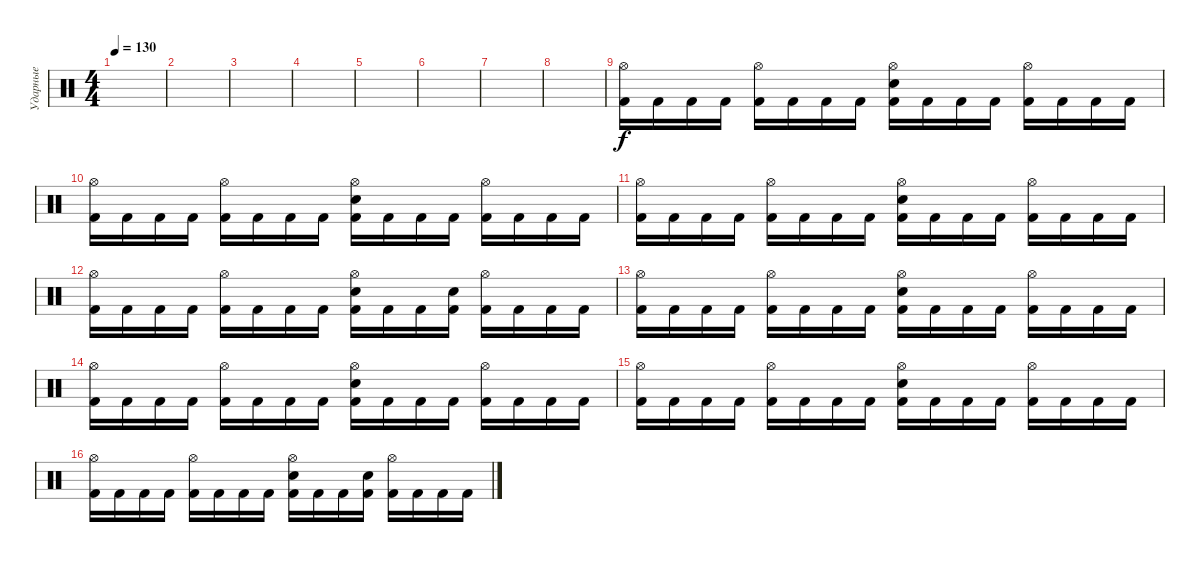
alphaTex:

\track ("Ударные" "Ударные") {instrument percussion}
\staff {score}
\articulation defaults
\ts (4 4)
\tempo 130
\clef neutral
\ks c
|
|
|
|
|
|
|
|
("Hi-Hat (open)" "Kick (hit) 2").16 "Kick (hit) 2".16 "Kick (hit) 2".16 "Kick (hit) 2".16 ("Hi-Hat (open)" "Kick (hit) 2").16 "Kick (hit) 2".16 "Kick (hit) 2".16 "Kick (hit) 2".16 ("Hi-Hat (open)" "Electric Snare (hit)" "Kick (hit) 2").16 "Kick (hit) 2".16 "Kick (hit) 2".16 "Kick (hit) 2".16 ("Hi-Hat (open)" "Kick (hit) 2").16 "Kick (hit) 2".16 "Kick (hit) 2".16 "Kick (hit) 2".16 |
("Hi-Hat (open)" "Kick (hit) 2").16 "Kick (hit) 2".16 "Kick (hit) 2".16 "Kick (hit) 2".16 ("Hi-Hat (open)" "Kick (hit) 2").16 "Kick (hit) 2".16 "Kick (hit) 2".16 "Kick (hit) 2".16 ("Hi-Hat (open)" "Electric Snare (hit)" "Kick (hit) 2").16 "Kick (hit) 2".16 "Kick (hit) 2".16 "Kick (hit) 2".16 ("Hi-Hat (open)" "Kick (hit) 2").16 "Kick (hit) 2".16 "Kick (hit) 2".16 "Kick (hit) 2".16 |
("Hi-Hat (open)" "Kick (hit) 2").16 "Kick (hit) 2".16 "Kick (hit) 2".16 "Kick (hit) 2".16 ("Hi-Hat (open)" "Kick (hit) 2").16 "Kick (hit) 2".16 "Kick (hit) 2".16 "Kick (hit) 2".16 ("Hi-Hat (open)" "Electric Snare (hit)" "Kick (hit) 2").16 "Kick (hit) 2".16 "Kick (hit) 2".16 "Kick (hit) 2".16 ("Hi-Hat (open)" "Kick (hit) 2").16 "Kick (hit) 2".16 "Kick (hit) 2".16 "Kick (hit) 2".16 |
("Hi-Hat (open)" "Kick (hit) 2").16 "Kick (hit) 2".16 "Kick (hit) 2".16 "Kick (hit) 2".16 ("Hi-Hat (open)" "Kick (hit) 2").16 "Kick (hit) 2".16 "Kick (hit) 2".16 "Kick (hit) 2".16 ("Hi-Hat (open)" "Electric Snare (hit)" "Kick (hit) 2").16 "Kick (hit) 2".16 "Kick (hit) 2".16 ("Electric Snare (hit)" "Kick (hit) 2").16 ("Hi-Hat (open)" "Kick (hit) 2").16 "Kick (hit) 2".16 "Kick (hit) 2".16 "Kick (hit) 2".16 |
("Hi-Hat (open)" "Kick (hit) 2").16 "Kick (hit) 2".16 "Kick (hit) 2".16 "Kick (hit) 2".16 ("Hi-Hat (open)" "Kick (hit) 2").16 "Kick (hit) 2".16 "Kick (hit) 2".16 "Kick (hit) 2".16 ("Hi-Hat (open)" "Electric Snare (hit)" "Kick (hit) 2").16 "Kick (hit) 2".16 "Kick (hit) 2".16 "Kick (hit) 2".16 ("Hi-Hat (open)" "Kick (hit) 2").16 "Kick (hit) 2".16 "Kick (hit) 2".16 "Kick (hit) 2".16 |
("Hi-Hat (open)" "Kick (hit) 2").16 "Kick (hit) 2".16 "Kick (hit) 2".16 "Kick (hit) 2".16 ("Hi-Hat (open)" "Kick (hit) 2").16 "Kick (hit) 2".16 "Kick (hit) 2".16 "Kick (hit) 2".16 ("Hi-Hat (open)" "Electric Snare (hit)" "Kick (hit) 2").16 "Kick (hit) 2".16 "Kick (hit) 2".16 "Kick (hit) 2".16 ("Hi-Hat (open)" "Kick (hit) 2").16 "Kick (hit) 2".16 "Kick (hit) 2".16 "Kick (hit) 2".16 |
("Hi-Hat (open)" "Kick (hit) 2").16 "Kick (hit) 2".16 "Kick (hit) 2".16 "Kick (hit) 2".16 ("Hi-Hat (open)" "Kick (hit) 2").16 "Kick (hit) 2".16 "Kick (hit) 2".16 "Kick (hit) 2".16 ("Hi-Hat (open)" "Electric Snare (hit)" "Kick (hit) 2").16 "Kick (hit) 2".16 "Kick (hit) 2".16 "Kick (hit) 2".16 ("Hi-Hat (open)" "Kick (hit) 2").16 "Kick (hit) 2".16 "Kick (hit) 2".16 "Kick (hit) 2".16 |
("Hi-Hat (open)" "Kick (hit) 2").16 "Kick (hit) 2".16 "Kick (hit) 2".16 "Kick (hit) 2".16 ("Hi-Hat (open)" "Kick (hit) 2").16 "Kick (hit) 2".16 "Kick (hit) 2".16 "Kick (hit) 2".16 ("Hi-Hat (open)" "Electric Snare (hit)" "Kick (hit) 2").16 "Kick (hit) 2".16 "Kick (hit) 2".16 ("Electric Snare (hit)" "Kick (hit) 2").16 ("Hi-Hat (open)" "Kick (hit) 2").16 "Kick (hit) 2".16 "Kick (hit) 2".16 "Kick (hit) 2".16
